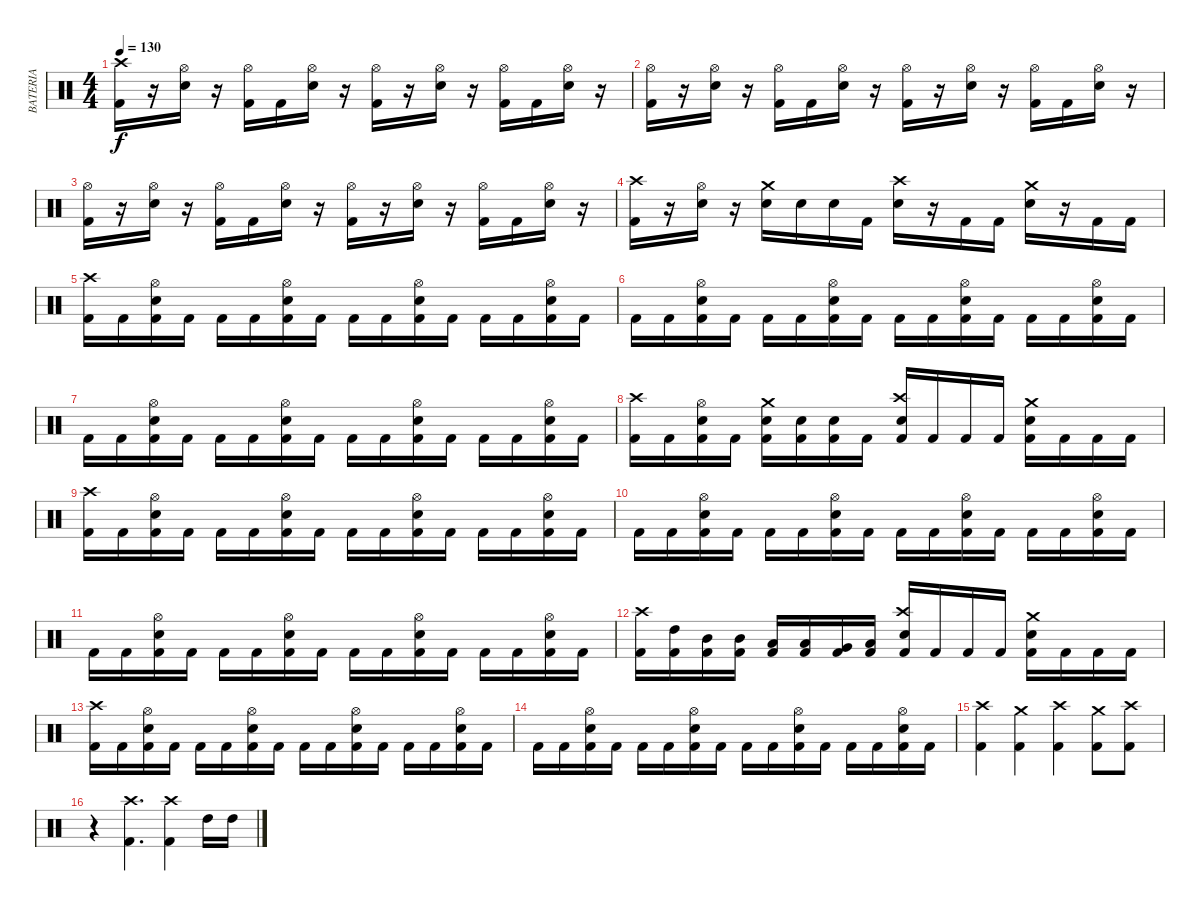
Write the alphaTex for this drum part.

\track ("BATERIA" "BATERIA") {instrument percussion}
\staff {score}
\articulation defaults
\ts (4 4)
\tempo 130
\clef neutral
\ks c
("Kick (hit) 2" "Crash high (hit)").16{dy f} r.16 ("Electric Snare (hit)" "Hi-Hat (open)").16 r.16 ("Kick (hit) 2" "Hi-Hat (open)").16 "Kick (hit) 2".16 ("Electric Snare (hit)" "Hi-Hat (open)").16 r.16 ("Kick (hit) 2" "Hi-Hat (open)").16 r.16 ("Electric Snare (hit)" "Hi-Hat (open)").16 r.16 ("Kick (hit) 2" "Hi-Hat (open)").16 "Kick (hit) 2".16 ("Electric Snare (hit)" "Hi-Hat (open)").16 r.16 |
("Kick (hit) 2" "Hi-Hat (open)").16 r.16 ("Electric Snare (hit)" "Hi-Hat (open)").16 r.16 ("Kick (hit) 2" "Hi-Hat (open)").16 "Kick (hit) 2".16 ("Electric Snare (hit)" "Hi-Hat (open)").16 r.16 ("Kick (hit) 2" "Hi-Hat (open)").16 r.16 ("Electric Snare (hit)" "Hi-Hat (open)").16 r.16 ("Kick (hit) 2" "Hi-Hat (open)").16 "Kick (hit) 2".16 ("Electric Snare (hit)" "Hi-Hat (open)").16 r.16 |
("Kick (hit) 2" "Hi-Hat (open)").16 r.16 ("Electric Snare (hit)" "Hi-Hat (open)").16 r.16 ("Kick (hit) 2" "Hi-Hat (open)").16 "Kick (hit) 2".16 ("Electric Snare (hit)" "Hi-Hat (open)").16 r.16 ("Kick (hit) 2" "Hi-Hat (open)").16 r.16 ("Electric Snare (hit)" "Hi-Hat (open)").16 r.16 ("Kick (hit) 2" "Hi-Hat (open)").16 "Kick (hit) 2".16 ("Electric Snare (hit)" "Hi-Hat (open)").16 r.16 |
("Kick (hit) 2" "Crash high (hit)").16 r.16 ("Electric Snare (hit)" "Hi-Hat (open)").16 r.16 ("Electric Snare (hit)" "Crash medium (hit)").16 "Electric Snare (hit)".16 "Electric Snare (hit)".16 "Kick (hit) 2".16 ("Electric Snare (hit)" "Crash high (hit)").16 r.16 "Kick (hit) 2".16 "Kick (hit) 2".16 ("Electric Snare (hit)" "Crash medium (hit)").16 r.16 "Kick (hit) 2".16 "Kick (hit) 2".16 |
("Kick (hit) 2" "Crash high (hit)").16 "Kick (hit) 2".16 ("Kick (hit) 2" "Electric Snare (hit)" "Hi-Hat (open)").16 "Kick (hit) 2".16 "Kick (hit) 2".16 "Kick (hit) 2".16 ("Kick (hit) 2" "Electric Snare (hit)" "Hi-Hat (open)").16 "Kick (hit) 2".16 "Kick (hit) 2".16 "Kick (hit) 2".16 ("Kick (hit) 2" "Electric Snare (hit)" "Hi-Hat (open)").16 "Kick (hit) 2".16 "Kick (hit) 2".16 "Kick (hit) 2".16 ("Kick (hit) 2" "Electric Snare (hit)" "Hi-Hat (open)").16 "Kick (hit) 2".16 |
"Kick (hit) 2".16 "Kick (hit) 2".16 ("Kick (hit) 2" "Electric Snare (hit)" "Hi-Hat (open)").16 "Kick (hit) 2".16 "Kick (hit) 2".16 "Kick (hit) 2".16 ("Kick (hit) 2" "Electric Snare (hit)" "Hi-Hat (open)").16 "Kick (hit) 2".16 "Kick (hit) 2".16 "Kick (hit) 2".16 ("Kick (hit) 2" "Electric Snare (hit)" "Hi-Hat (open)").16 "Kick (hit) 2".16 "Kick (hit) 2".16 "Kick (hit) 2".16 ("Kick (hit) 2" "Electric Snare (hit)" "Hi-Hat (open)").16 "Kick (hit) 2".16 |
"Kick (hit) 2".16 "Kick (hit) 2".16 ("Kick (hit) 2" "Electric Snare (hit)" "Hi-Hat (open)").16 "Kick (hit) 2".16 "Kick (hit) 2".16 "Kick (hit) 2".16 ("Kick (hit) 2" "Electric Snare (hit)" "Hi-Hat (open)").16 "Kick (hit) 2".16 "Kick (hit) 2".16 "Kick (hit) 2".16 ("Kick (hit) 2" "Electric Snare (hit)" "Hi-Hat (open)").16 "Kick (hit) 2".16 "Kick (hit) 2".16 "Kick (hit) 2".16 ("Kick (hit) 2" "Electric Snare (hit)" "Hi-Hat (open)").16 "Kick (hit) 2".16 |
("Kick (hit) 2" "Crash high (hit)").16 "Kick (hit) 2".16 ("Kick (hit) 2" "Electric Snare (hit)" "Hi-Hat (open)").16 "Kick (hit) 2".16 ("Kick (hit) 2" "Electric Snare (hit)" "Crash medium (hit)").16 ("Kick (hit) 2" "Electric Snare (hit)").16 ("Kick (hit) 2" "Electric Snare (hit)").16 "Kick (hit) 2".16 ("Kick (hit) 2" "Electric Snare (hit)" "Crash high (hit)").16 "Kick (hit) 2".16 "Kick (hit) 2".16 "Kick (hit) 2".16 ("Kick (hit) 2" "Electric Snare (hit)" "Crash medium (hit)").16 "Kick (hit) 2".16 "Kick (hit) 2".16 "Kick (hit) 2".16 |
("Kick (hit) 2" "Crash high (hit)").16 "Kick (hit) 2".16 ("Kick (hit) 2" "Electric Snare (hit)" "Hi-Hat (open)").16 "Kick (hit) 2".16 "Kick (hit) 2".16 "Kick (hit) 2".16 ("Kick (hit) 2" "Electric Snare (hit)" "Hi-Hat (open)").16 "Kick (hit) 2".16 "Kick (hit) 2".16 "Kick (hit) 2".16 ("Kick (hit) 2" "Electric Snare (hit)" "Hi-Hat (open)").16 "Kick (hit) 2".16 "Kick (hit) 2".16 "Kick (hit) 2".16 ("Kick (hit) 2" "Electric Snare (hit)" "Hi-Hat (open)").16 "Kick (hit) 2".16 |
"Kick (hit) 2".16 "Kick (hit) 2".16 ("Kick (hit) 2" "Electric Snare (hit)" "Hi-Hat (open)").16 "Kick (hit) 2".16 "Kick (hit) 2".16 "Kick (hit) 2".16 ("Kick (hit) 2" "Electric Snare (hit)" "Hi-Hat (open)").16 "Kick (hit) 2".16 "Kick (hit) 2".16 "Kick (hit) 2".16 ("Kick (hit) 2" "Electric Snare (hit)" "Hi-Hat (open)").16 "Kick (hit) 2".16 "Kick (hit) 2".16 "Kick (hit) 2".16 ("Kick (hit) 2" "Electric Snare (hit)" "Hi-Hat (open)").16 "Kick (hit) 2".16 |
"Kick (hit) 2".16 "Kick (hit) 2".16 ("Kick (hit) 2" "Electric Snare (hit)" "Hi-Hat (open)").16 "Kick (hit) 2".16 "Kick (hit) 2".16 "Kick (hit) 2".16 ("Kick (hit) 2" "Electric Snare (hit)" "Hi-Hat (open)").16 "Kick (hit) 2".16 "Kick (hit) 2".16 "Kick (hit) 2".16 ("Kick (hit) 2" "Electric Snare (hit)" "Hi-Hat (open)").16 "Kick (hit) 2".16 "Kick (hit) 2".16 "Kick (hit) 2".16 ("Kick (hit) 2" "Electric Snare (hit)" "Hi-Hat (open)").16 "Kick (hit) 2".16 |
("Kick (hit) 2" "Crash high (hit)").16 ("Kick (hit) 2" "High Tom (hit)").16 ("Kick (hit) 2" "Mid Tom (hit)").16 ("Kick (hit) 2" "Mid Tom (hit)").16 ("Kick (hit) 2" "Low Tom (hit)").16 ("Kick (hit) 2" "Low Tom (hit)").16 ("Kick (hit) 2" "Very Low Tom (hit)").16 ("Kick (hit) 2" "Low Floor Tom (hit)").16 ("Kick (hit) 2" "Electric Snare (hit)" "Crash high (hit)").16 "Kick (hit) 2".16 "Kick (hit) 2".16 "Kick (hit) 2".16 ("Kick (hit) 2" "Electric Snare (hit)" "Crash medium (hit)").16 "Kick (hit) 2".16 "Kick (hit) 2".16 "Kick (hit) 2".16 |
("Kick (hit) 2" "Crash high (hit)").16 "Kick (hit) 2".16 ("Kick (hit) 2" "Electric Snare (hit)" "Hi-Hat (open)").16 "Kick (hit) 2".16 "Kick (hit) 2".16 "Kick (hit) 2".16 ("Kick (hit) 2" "Electric Snare (hit)" "Hi-Hat (open)").16 "Kick (hit) 2".16 "Kick (hit) 2".16 "Kick (hit) 2".16 ("Kick (hit) 2" "Electric Snare (hit)" "Hi-Hat (open)").16 "Kick (hit) 2".16 "Kick (hit) 2".16 "Kick (hit) 2".16 ("Kick (hit) 2" "Electric Snare (hit)" "Hi-Hat (open)").16 "Kick (hit) 2".16 |
"Kick (hit) 2".16 "Kick (hit) 2".16 ("Kick (hit) 2" "Electric Snare (hit)" "Hi-Hat (open)").16 "Kick (hit) 2".16 "Kick (hit) 2".16 "Kick (hit) 2".16 ("Kick (hit) 2" "Electric Snare (hit)" "Hi-Hat (open)").16 "Kick (hit) 2".16 "Kick (hit) 2".16 "Kick (hit) 2".16 ("Kick (hit) 2" "Electric Snare (hit)" "Hi-Hat (open)").16 "Kick (hit) 2".16 "Kick (hit) 2".16 "Kick (hit) 2".16 ("Kick (hit) 2" "Electric Snare (hit)" "Hi-Hat (open)").16 "Kick (hit) 2".16 |
("Kick (hit) 2" "Crash high (hit)").4 ("Kick (hit) 2" "Crash medium (hit)").4 ("Kick (hit) 2" "Crash high (hit)").4 ("Kick (hit) 2" "Crash medium (hit)").8 ("Kick (hit) 2" "Crash high (hit)").8 |
r.4 ("Kick (hit) 2" "Crash high (hit)").4{d} ("Kick (hit) 2" "Crash high (hit)").4 "High Tom (hit)".16 "High Tom (hit)".16
